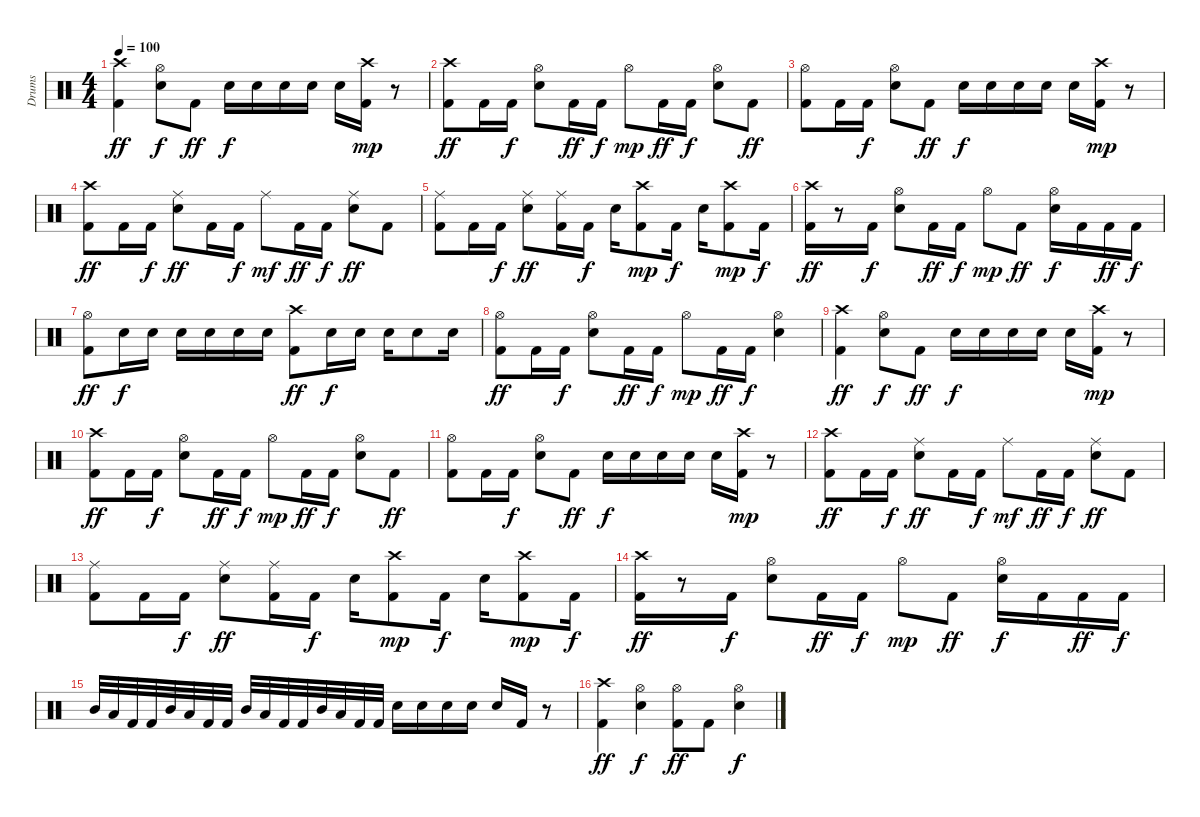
\track ("Drums" "Drums") {instrument percussion}
\staff {score}
\articulation defaults
\ts (4 4)
\tempo 100
\clef neutral
\ks c
("Crash high (hit)" "Kick (hit) 2").4{dy ff} ("Hi-Hat (open)" "Electric Snare (hit)").8{dy f} "Kick (hit) 2".8{dy ff} "Electric Snare (hit)".16{dy f} "Electric Snare (hit)".16 "Electric Snare (hit)".16 "Electric Snare (hit)".16 "Electric Snare (hit)".16 ("Crash high (hit)" "Kick (hit) 2").16{dy mp} r.8 |
("Crash high (hit)" "Kick (hit) 2").8{dy ff} "Kick (hit) 2".16 "Kick (hit) 2".16{dy f} ("Hi-Hat (open)" "Electric Snare (hit)").8 "Kick (hit) 2".16{dy ff} "Kick (hit) 2".16{dy f} "Hi-Hat (open)".8{dy mp} "Kick (hit) 2".16{dy ff} "Kick (hit) 2".16{dy f} ("Hi-Hat (open)" "Electric Snare (hit)").8 "Kick (hit) 2".8{dy ff} |
("Hi-Hat (open)" "Kick (hit) 2").8 "Kick (hit) 2".16 "Kick (hit) 2".16{dy f} ("Hi-Hat (open)" "Electric Snare (hit)").8 "Kick (hit) 2".8{dy ff} "Electric Snare (hit)".16{dy f} "Electric Snare (hit)".16 "Electric Snare (hit)".16 "Electric Snare (hit)".16 "Electric Snare (hit)".16 ("Crash high (hit)" "Kick (hit) 2").16{dy mp} r.8 |
("Crash high (hit)" "Kick (hit) 2").8{dy ff} "Kick (hit) 2".16 "Kick (hit) 2".16{dy f} ("Ride (middle)" "Electric Snare (hit)").8{dy ff} "Kick (hit) 2".16 "Kick (hit) 2".16{dy f} "Ride (middle)".8{dy mf} "Kick (hit) 2".16{dy ff} "Kick (hit) 2".16{dy f} ("Ride (middle)" "Electric Snare (hit)").8{dy ff} "Kick (hit) 2".8 |
("Ride (middle)" "Kick (hit) 2").8 "Kick (hit) 2".16 "Kick (hit) 2".16{dy f} ("Ride (middle)" "Electric Snare (hit)").8{dy ff} ("Ride (middle)" "Kick (hit) 2").16 "Kick (hit) 2".16{dy f} "Electric Snare (hit)".16 ("Crash high (hit)" "Kick (hit) 2").8{dy mp} "Kick (hit) 2".16{dy f} "Electric Snare (hit)".16 ("Crash high (hit)" "Kick (hit) 2").8{dy mp} "Kick (hit) 2".16{dy f} |
("Crash high (hit)" "Kick (hit) 2").16{dy ff} r.8 "Kick (hit) 2".16{dy f} ("Hi-Hat (open)" "Electric Snare (hit)").8 "Kick (hit) 2".16{dy ff} "Kick (hit) 2".16{dy f} "Hi-Hat (open)".8{dy mp} "Kick (hit) 2".8{dy ff} ("Hi-Hat (open)" "Electric Snare (hit)").16{dy f} "Kick (hit) 2".16 "Kick (hit) 2".16{dy ff} "Kick (hit) 2".16{dy f} |
("Hi-Hat (open)" "Kick (hit) 2").8{dy ff} "Electric Snare (hit)".16{dy f} "Electric Snare (hit)".16 "Electric Snare (hit)".16 "Electric Snare (hit)".16 "Electric Snare (hit)".16 "Electric Snare (hit)".16 ("Crash high (hit)" "Kick (hit) 2").8{dy ff} "Electric Snare (hit)".16{dy f} "Electric Snare (hit)".16 "Electric Snare (hit)".16 "Electric Snare (hit)".8 "Electric Snare (hit)".16 |
("Hi-Hat (open)" "Kick (hit) 2").8{dy ff} "Kick (hit) 2".16 "Kick (hit) 2".16{dy f} ("Hi-Hat (open)" "Electric Snare (hit)").8 "Kick (hit) 2".16{dy ff} "Kick (hit) 2".16{dy f} "Hi-Hat (open)".8{dy mp} "Kick (hit) 2".16{dy ff} "Kick (hit) 2".16{dy f} ("Hi-Hat (open)" "Electric Snare (hit)").4 |
("Crash high (hit)" "Kick (hit) 2").4{dy ff} ("Hi-Hat (open)" "Electric Snare (hit)").8{dy f} "Kick (hit) 2".8{dy ff} "Electric Snare (hit)".16{dy f} "Electric Snare (hit)".16 "Electric Snare (hit)".16 "Electric Snare (hit)".16 "Electric Snare (hit)".16 ("Crash high (hit)" "Kick (hit) 2").16{dy mp} r.8 |
("Crash high (hit)" "Kick (hit) 2").8{dy ff} "Kick (hit) 2".16 "Kick (hit) 2".16{dy f} ("Hi-Hat (open)" "Electric Snare (hit)").8 "Kick (hit) 2".16{dy ff} "Kick (hit) 2".16{dy f} "Hi-Hat (open)".8{dy mp} "Kick (hit) 2".16{dy ff} "Kick (hit) 2".16{dy f} ("Hi-Hat (open)" "Electric Snare (hit)").8 "Kick (hit) 2".8{dy ff} |
("Hi-Hat (open)" "Kick (hit) 2").8 "Kick (hit) 2".16 "Kick (hit) 2".16{dy f} ("Hi-Hat (open)" "Electric Snare (hit)").8 "Kick (hit) 2".8{dy ff} "Electric Snare (hit)".16{dy f} "Electric Snare (hit)".16 "Electric Snare (hit)".16 "Electric Snare (hit)".16 "Electric Snare (hit)".16 ("Crash high (hit)" "Kick (hit) 2").16{dy mp} r.8 |
("Crash high (hit)" "Kick (hit) 2").8{dy ff} "Kick (hit) 2".16 "Kick (hit) 2".16{dy f} ("Ride (middle)" "Electric Snare (hit)").8{dy ff} "Kick (hit) 2".16 "Kick (hit) 2".16{dy f} "Ride (middle)".8{dy mf} "Kick (hit) 2".16{dy ff} "Kick (hit) 2".16{dy f} ("Ride (middle)" "Electric Snare (hit)").8{dy ff} "Kick (hit) 2".8 |
("Ride (middle)" "Kick (hit) 2").8 "Kick (hit) 2".16 "Kick (hit) 2".16{dy f} ("Ride (middle)" "Electric Snare (hit)").8{dy ff} ("Ride (middle)" "Kick (hit) 2").16 "Kick (hit) 2".16{dy f} "Electric Snare (hit)".16 ("Crash high (hit)" "Kick (hit) 2").8{dy mp} "Kick (hit) 2".16{dy f} "Electric Snare (hit)".16 ("Crash high (hit)" "Kick (hit) 2").8{dy mp} "Kick (hit) 2".16{dy f} |
("Crash high (hit)" "Kick (hit) 2").16{dy ff} r.8 "Kick (hit) 2".16{dy f} ("Hi-Hat (open)" "Electric Snare (hit)").8 "Kick (hit) 2".16{dy ff} "Kick (hit) 2".16{dy f} "Hi-Hat (open)".8{dy mp} "Kick (hit) 2".8{dy ff} ("Hi-Hat (open)" "Electric Snare (hit)").16{dy f} "Kick (hit) 2".16 "Kick (hit) 2".16{dy ff} "Kick (hit) 2".16{dy f} |
"Mid Tom (hit)".32 "Low Tom (hit)".32 "Kick (hit) 2".32 "Kick (hit) 2".32 "Mid Tom (hit)".32 "Low Tom (hit)".32 "Kick (hit) 2".32 "Kick (hit) 2".32 "Mid Tom (hit)".32 "Low Tom (hit)".32 "Kick (hit) 2".32 "Kick (hit) 2".32 "Mid Tom (hit)".32 "Low Tom (hit)".32 "Kick (hit) 2".32 "Kick (hit) 2".32 "Electric Snare (hit)".16 "Electric Snare (hit)".16 "Electric Snare (hit)".16 "Electric Snare (hit)".16 "Electric Snare (hit)".16 "Kick (hit) 2".16 r.8 |
("Crash high (hit)" "Kick (hit) 2").4{dy ff} ("Hi-Hat (open)" "Electric Snare (hit)").4{dy f} ("Hi-Hat (open)" "Kick (hit) 2").8{dy ff} "Kick (hit) 2".8 ("Hi-Hat (open)" "Electric Snare (hit)").4{dy f}
